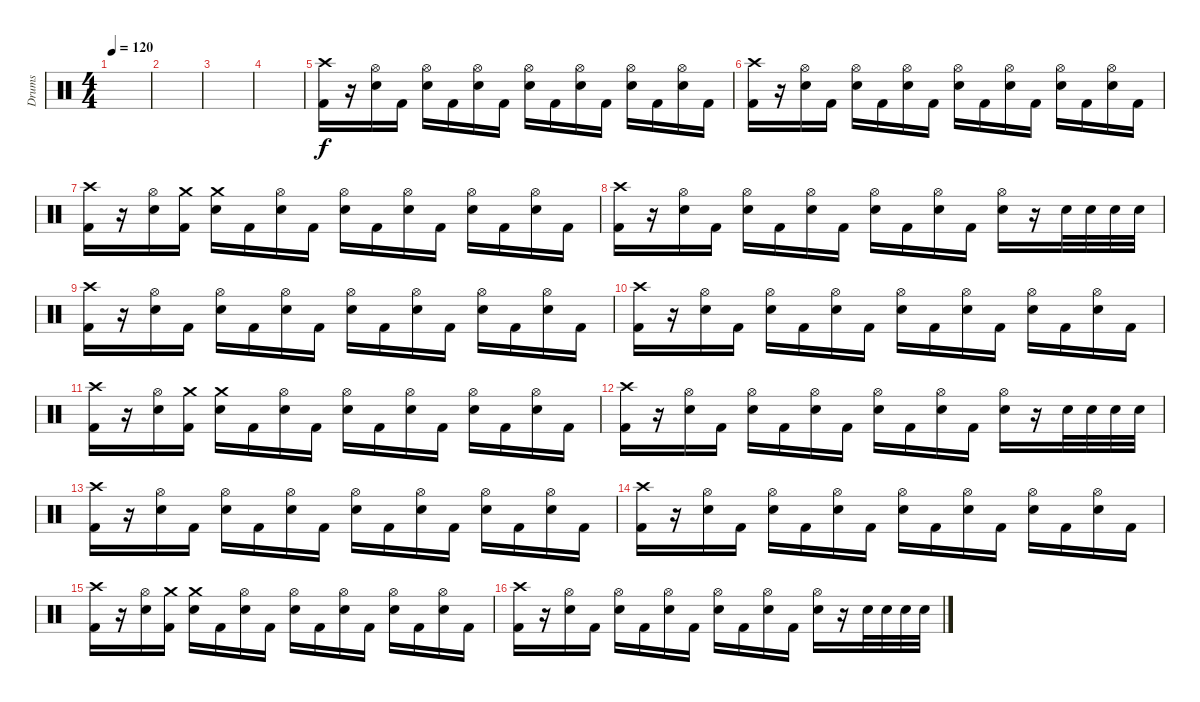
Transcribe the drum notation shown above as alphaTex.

\track ("Drums" "Drums") {instrument percussion}
\staff {score}
\articulation defaults
\ts (4 4)
\tempo 120
\clef neutral
\ks c
|
|
|
|
("Crash high (hit)" "Kick (hit) 2").16 r.16 ("Hi-Hat (open)" "Snare (hit) 2").16 "Kick (hit) 2".16 ("Hi-Hat (open)" "Snare (hit) 2").16 "Kick (hit) 2".16 ("Hi-Hat (open)" "Snare (hit) 2").16 "Kick (hit) 2".16 ("Hi-Hat (open)" "Snare (hit) 2").16 "Kick (hit) 2".16 ("Hi-Hat (open)" "Snare (hit) 2").16 "Kick (hit) 2".16 ("Hi-Hat (open)" "Snare (hit) 2").16 "Kick (hit) 2".16 ("Hi-Hat (open)" "Snare (hit) 2").16 "Kick (hit) 2".16 |
("Crash high (hit)" "Kick (hit) 2").16 r.16 ("Hi-Hat (open)" "Snare (hit) 2").16 "Kick (hit) 2".16 ("Hi-Hat (open)" "Snare (hit) 2").16 "Kick (hit) 2".16 ("Hi-Hat (open)" "Snare (hit) 2").16 "Kick (hit) 2".16 ("Hi-Hat (open)" "Snare (hit) 2").16 "Kick (hit) 2".16 ("Hi-Hat (open)" "Snare (hit) 2").16 "Kick (hit) 2".16 ("Hi-Hat (open)" "Snare (hit) 2").16 "Kick (hit) 2".16 ("Hi-Hat (open)" "Snare (hit) 2").16 "Kick (hit) 2".16 |
("Crash high (hit)" "Kick (hit) 2").16 r.16 ("Hi-Hat (open)" "Snare (hit) 2").16 ("Crash medium (hit)" "Kick (hit) 2").16 ("Crash medium (hit)" "Snare (hit) 2").16 "Kick (hit) 2".16 ("Hi-Hat (open)" "Snare (hit) 2").16 "Kick (hit) 2".16 ("Hi-Hat (open)" "Snare (hit) 2").16 "Kick (hit) 2".16 ("Hi-Hat (open)" "Snare (hit) 2").16 "Kick (hit) 2".16 ("Hi-Hat (open)" "Snare (hit) 2").16 "Kick (hit) 2".16 ("Hi-Hat (open)" "Snare (hit) 2").16 "Kick (hit) 2".16 |
("Crash high (hit)" "Kick (hit) 2").16 r.16 ("Hi-Hat (open)" "Snare (hit) 2").16 "Kick (hit) 2".16 ("Hi-Hat (open)" "Snare (hit) 2").16 "Kick (hit) 2".16 ("Hi-Hat (open)" "Snare (hit) 2").16 "Kick (hit) 2".16 ("Hi-Hat (open)" "Snare (hit) 2").16 "Kick (hit) 2".16 ("Hi-Hat (open)" "Snare (hit) 2").16 "Kick (hit) 2".16 ("Hi-Hat (open)" "Snare (hit) 2").16 r.16 "Snare (hit) 2".32 "Snare (hit) 2".32 "Snare (hit) 2".32 "Snare (hit) 2".32 |
("Crash high (hit)" "Kick (hit) 2").16 r.16 ("Hi-Hat (open)" "Snare (hit) 2").16 "Kick (hit) 2".16 ("Hi-Hat (open)" "Snare (hit) 2").16 "Kick (hit) 2".16 ("Hi-Hat (open)" "Snare (hit) 2").16 "Kick (hit) 2".16 ("Hi-Hat (open)" "Snare (hit) 2").16 "Kick (hit) 2".16 ("Hi-Hat (open)" "Snare (hit) 2").16 "Kick (hit) 2".16 ("Hi-Hat (open)" "Snare (hit) 2").16 "Kick (hit) 2".16 ("Hi-Hat (open)" "Snare (hit) 2").16 "Kick (hit) 2".16 |
("Crash high (hit)" "Kick (hit) 2").16 r.16 ("Hi-Hat (open)" "Snare (hit) 2").16 "Kick (hit) 2".16 ("Hi-Hat (open)" "Snare (hit) 2").16 "Kick (hit) 2".16 ("Hi-Hat (open)" "Snare (hit) 2").16 "Kick (hit) 2".16 ("Hi-Hat (open)" "Snare (hit) 2").16 "Kick (hit) 2".16 ("Hi-Hat (open)" "Snare (hit) 2").16 "Kick (hit) 2".16 ("Hi-Hat (open)" "Snare (hit) 2").16 "Kick (hit) 2".16 ("Hi-Hat (open)" "Snare (hit) 2").16 "Kick (hit) 2".16 |
("Crash high (hit)" "Kick (hit) 2").16 r.16 ("Hi-Hat (open)" "Snare (hit) 2").16 ("Crash medium (hit)" "Kick (hit) 2").16 ("Crash medium (hit)" "Snare (hit) 2").16 "Kick (hit) 2".16 ("Hi-Hat (open)" "Snare (hit) 2").16 "Kick (hit) 2".16 ("Hi-Hat (open)" "Snare (hit) 2").16 "Kick (hit) 2".16 ("Hi-Hat (open)" "Snare (hit) 2").16 "Kick (hit) 2".16 ("Hi-Hat (open)" "Snare (hit) 2").16 "Kick (hit) 2".16 ("Hi-Hat (open)" "Snare (hit) 2").16 "Kick (hit) 2".16 |
("Crash high (hit)" "Kick (hit) 2").16 r.16 ("Hi-Hat (open)" "Snare (hit) 2").16 "Kick (hit) 2".16 ("Hi-Hat (open)" "Snare (hit) 2").16 "Kick (hit) 2".16 ("Hi-Hat (open)" "Snare (hit) 2").16 "Kick (hit) 2".16 ("Hi-Hat (open)" "Snare (hit) 2").16 "Kick (hit) 2".16 ("Hi-Hat (open)" "Snare (hit) 2").16 "Kick (hit) 2".16 ("Hi-Hat (open)" "Snare (hit) 2").16 r.16 "Snare (hit) 2".32 "Snare (hit) 2".32 "Snare (hit) 2".32 "Snare (hit) 2".32 |
("Crash high (hit)" "Kick (hit) 2").16 r.16 ("Hi-Hat (open)" "Snare (hit) 2").16 "Kick (hit) 2".16 ("Hi-Hat (open)" "Snare (hit) 2").16 "Kick (hit) 2".16 ("Hi-Hat (open)" "Snare (hit) 2").16 "Kick (hit) 2".16 ("Hi-Hat (open)" "Snare (hit) 2").16 "Kick (hit) 2".16 ("Hi-Hat (open)" "Snare (hit) 2").16 "Kick (hit) 2".16 ("Hi-Hat (open)" "Snare (hit) 2").16 "Kick (hit) 2".16 ("Hi-Hat (open)" "Snare (hit) 2").16 "Kick (hit) 2".16 |
("Crash high (hit)" "Kick (hit) 2").16 r.16 ("Hi-Hat (open)" "Snare (hit) 2").16 "Kick (hit) 2".16 ("Hi-Hat (open)" "Snare (hit) 2").16 "Kick (hit) 2".16 ("Hi-Hat (open)" "Snare (hit) 2").16 "Kick (hit) 2".16 ("Hi-Hat (open)" "Snare (hit) 2").16 "Kick (hit) 2".16 ("Hi-Hat (open)" "Snare (hit) 2").16 "Kick (hit) 2".16 ("Hi-Hat (open)" "Snare (hit) 2").16 "Kick (hit) 2".16 ("Hi-Hat (open)" "Snare (hit) 2").16 "Kick (hit) 2".16 |
("Crash high (hit)" "Kick (hit) 2").16 r.16 ("Hi-Hat (open)" "Snare (hit) 2").16 ("Crash medium (hit)" "Kick (hit) 2").16 ("Crash medium (hit)" "Snare (hit) 2").16 "Kick (hit) 2".16 ("Hi-Hat (open)" "Snare (hit) 2").16 "Kick (hit) 2".16 ("Hi-Hat (open)" "Snare (hit) 2").16 "Kick (hit) 2".16 ("Hi-Hat (open)" "Snare (hit) 2").16 "Kick (hit) 2".16 ("Hi-Hat (open)" "Snare (hit) 2").16 "Kick (hit) 2".16 ("Hi-Hat (open)" "Snare (hit) 2").16 "Kick (hit) 2".16 |
("Crash high (hit)" "Kick (hit) 2").16 r.16 ("Hi-Hat (open)" "Snare (hit) 2").16 "Kick (hit) 2".16 ("Hi-Hat (open)" "Snare (hit) 2").16 "Kick (hit) 2".16 ("Hi-Hat (open)" "Snare (hit) 2").16 "Kick (hit) 2".16 ("Hi-Hat (open)" "Snare (hit) 2").16 "Kick (hit) 2".16 ("Hi-Hat (open)" "Snare (hit) 2").16 "Kick (hit) 2".16 ("Hi-Hat (open)" "Snare (hit) 2").16 r.16 "Snare (hit) 2".32 "Snare (hit) 2".32 "Snare (hit) 2".32 "Snare (hit) 2".32
